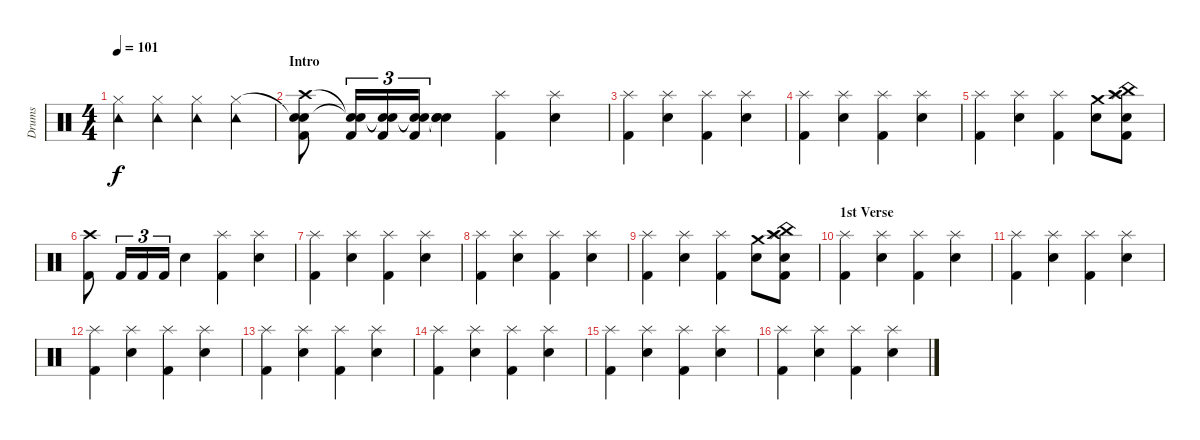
\track ("Drums" "Drums") {instrument percussion}
\staff {score}
\articulation defaults
\ts (4 4)
\tempo 101
\clef neutral
\ks c
("Tambourine (hit)" "Hi-Hat (closed)").4{dy f} ("Tambourine (hit)" "Hi-Hat (closed)").4 ("Tambourine (hit)" "Hi-Hat (closed)").4 ("Tambourine (hit)" "Hi-Hat (closed)").4 |
\section ("" "Intro")
("Crash high (hit)" "Snare (hit)"{t} "Snare (hit)" "Kick (hit) 2").8 ("Snare (hit)"{t} "Snare (hit)"{t} "Kick (hit) 2").16{tu (3 2)} ("Snare (hit)"{t} "Snare (hit)"{t} "Kick (hit) 2").16{tu (3 2)} ("Snare (hit)"{t} "Snare (hit)"{t} "Kick (hit) 2").16{tu (3 2)} ("Snare (hit)"{t} "Snare (hit)"{t} "Snare (hit) 2").4 ("Splash (hit)" "Kick (hit) 2").4 ("Splash (hit)" "Snare (hit) 2").4 |
("Splash (hit)" "Kick (hit) 2").4 ("Splash (hit)" "Snare (hit) 2").4 ("Splash (hit)" "Kick (hit) 2").4 ("Splash (hit)" "Snare (hit) 2").4 |
("Splash (hit)" "Kick (hit) 2").4 ("Splash (hit)" "Snare (hit) 2").4 ("Splash (hit)" "Kick (hit) 2").4 ("Splash (hit)" "Snare (hit) 2").4 |
("Splash (hit)" "Kick (hit) 2").4 ("Splash (hit)" "Snare (hit) 2").4 ("Splash (hit)" "Kick (hit) 2").4 ("Crash medium (hit)" "Snare (hit) 2").8 ("Crash high (hit)" "Splash (hit)" "China (hit)" "Kick (hit) 2" "Snare (hit) 2").8 |
("Crash high (hit)" "Kick (hit) 2").8 "Kick (hit) 2".16{tu (3 2)} "Kick (hit) 2".16{tu (3 2)} "Kick (hit) 2".16{tu (3 2)} "Snare (hit) 2".4 ("Splash (hit)" "Kick (hit) 2").4 ("Splash (hit)" "Snare (hit) 2").4 |
("Splash (hit)" "Kick (hit) 2").4 ("Splash (hit)" "Snare (hit) 2").4 ("Splash (hit)" "Kick (hit) 2").4 ("Splash (hit)" "Snare (hit) 2").4 |
("Splash (hit)" "Kick (hit) 2").4 ("Splash (hit)" "Snare (hit) 2").4 ("Splash (hit)" "Kick (hit) 2").4 ("Splash (hit)" "Snare (hit) 2").4 |
("Splash (hit)" "Kick (hit) 2").4 ("Splash (hit)" "Snare (hit) 2").4 ("Splash (hit)" "Kick (hit) 2").4 ("Crash medium (hit)" "Snare (hit) 2").8 ("Crash high (hit)" "Splash (hit)" "China (hit)" "Kick (hit) 2" "Snare (hit) 2").8 |
\section ("" "1st Verse")
("Splash (hit)" "Kick (hit) 2").4 ("Splash (hit)" "Snare (hit) 2").4 ("Splash (hit)" "Kick (hit) 2").4 ("Splash (hit)" "Snare (hit) 2").4 |
("Splash (hit)" "Kick (hit) 2").4 ("Splash (hit)" "Snare (hit) 2").4 ("Splash (hit)" "Kick (hit) 2").4 ("Splash (hit)" "Snare (hit) 2").4 |
("Splash (hit)" "Kick (hit) 2").4 ("Splash (hit)" "Snare (hit) 2").4 ("Splash (hit)" "Kick (hit) 2").4 ("Splash (hit)" "Snare (hit) 2").4 |
("Splash (hit)" "Kick (hit) 2").4 ("Splash (hit)" "Snare (hit) 2").4 ("Splash (hit)" "Kick (hit) 2").4 ("Splash (hit)" "Snare (hit) 2").4 |
("Splash (hit)" "Kick (hit) 2").4 ("Splash (hit)" "Snare (hit) 2").4 ("Splash (hit)" "Kick (hit) 2").4 ("Splash (hit)" "Snare (hit) 2").4 |
("Splash (hit)" "Kick (hit) 2").4 ("Splash (hit)" "Snare (hit) 2").4 ("Splash (hit)" "Kick (hit) 2").4 ("Splash (hit)" "Snare (hit) 2").4 |
("Splash (hit)" "Kick (hit) 2").4 ("Splash (hit)" "Snare (hit) 2").4 ("Splash (hit)" "Kick (hit) 2").4 ("Splash (hit)" "Snare (hit) 2").4
